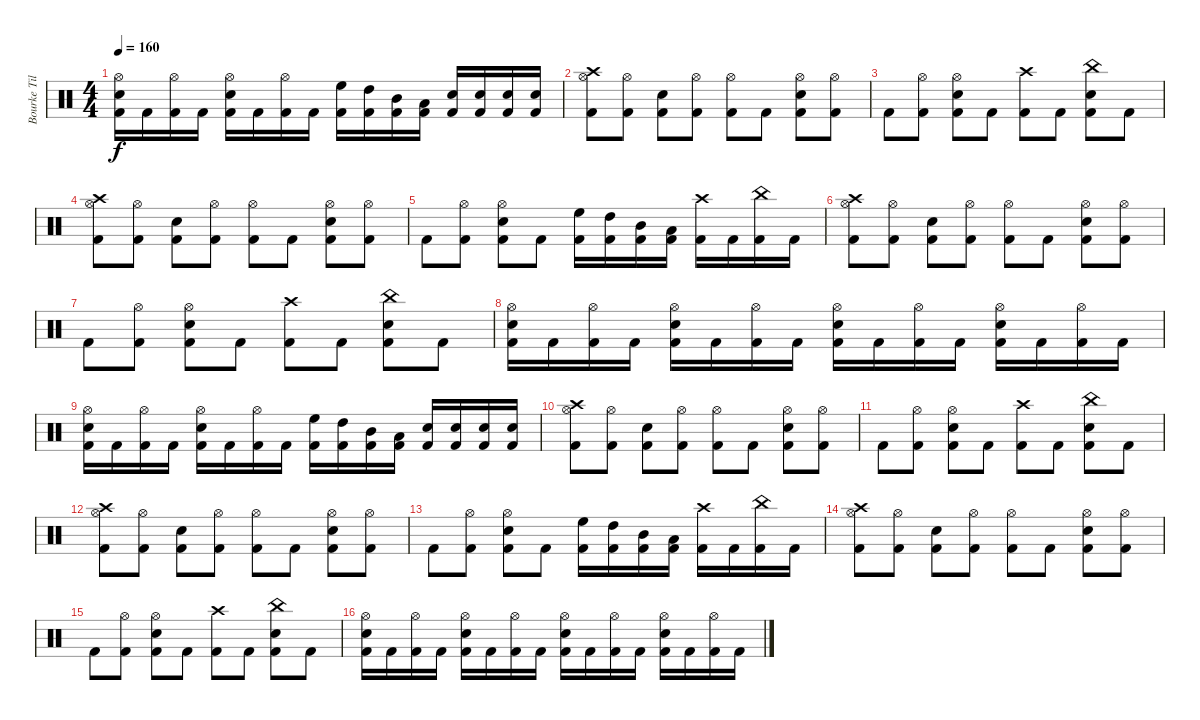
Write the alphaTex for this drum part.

\track ("Bourke Tillman" "Bourke Til") {instrument percussion}
\staff {score}
\articulation defaults
\ts (4 4)
\tempo 160
\clef neutral
\ks c
("Hi-Hat (open)" "Electric Snare (hit)" "Kick (hit) 2").16{dy f} "Kick (hit) 2".16 ("Hi-Hat (open)" "Kick (hit) 2").16 "Kick (hit) 2".16 ("Hi-Hat (open)" "Electric Snare (hit)" "Kick (hit) 2").16 "Kick (hit) 2".16 ("Hi-Hat (open)" "Kick (hit) 2").16 "Kick (hit) 2".16 ("High Floor Tom (hit)" "Kick (hit) 2").16 ("High Tom (hit)" "Kick (hit) 2").16 ("Mid Tom (hit)" "Kick (hit) 2").16 ("Low Tom (hit)" "Kick (hit) 2").16 ("Electric Snare (hit)" "Kick (hit) 2").16 ("Electric Snare (hit)" "Kick (hit) 2").16 ("Electric Snare (hit)" "Kick (hit) 2").16 ("Electric Snare (hit)" "Kick (hit) 2").16 |
("Crash high (hit)" "Hi-Hat (open)" "Kick (hit) 2").8 ("Hi-Hat (open)" "Kick (hit) 2").8 ("Electric Snare (hit)" "Kick (hit) 2").8 ("Hi-Hat (open)" "Kick (hit) 2").8 ("Hi-Hat (open)" "Kick (hit) 2").8 "Kick (hit) 2".8 ("Hi-Hat (open)" "Electric Snare (hit)" "Kick (hit) 2").8 ("Hi-Hat (open)" "Kick (hit) 2").8 |
"Kick (hit) 2".8 ("Hi-Hat (open)" "Kick (hit) 2").8 ("Hi-Hat (open)" "Electric Snare (hit)" "Kick (hit) 2").8 "Kick (hit) 2".8 ("Crash high (hit)" "Kick (hit) 2").8 "Kick (hit) 2".8 ("China (hit)" "Electric Snare (hit)" "Kick (hit) 2").8 "Kick (hit) 2".8 |
("Crash high (hit)" "Hi-Hat (open)" "Kick (hit) 2").8 ("Hi-Hat (open)" "Kick (hit) 2").8 ("Electric Snare (hit)" "Kick (hit) 2").8 ("Hi-Hat (open)" "Kick (hit) 2").8 ("Hi-Hat (open)" "Kick (hit) 2").8 "Kick (hit) 2".8 ("Hi-Hat (open)" "Electric Snare (hit)" "Kick (hit) 2").8 ("Hi-Hat (open)" "Kick (hit) 2").8 |
"Kick (hit) 2".8 ("Hi-Hat (open)" "Kick (hit) 2").8 ("Hi-Hat (open)" "Electric Snare (hit)" "Kick (hit) 2").8 "Kick (hit) 2".8 ("High Floor Tom (hit)" "Kick (hit) 2").16 ("High Tom (hit)" "Kick (hit) 2").16 ("Mid Tom (hit)" "Kick (hit) 2").16 ("Low Tom (hit)" "Kick (hit) 2").16 ("Crash high (hit)" "Kick (hit) 2").16 "Kick (hit) 2".16 ("China (hit)" "Kick (hit) 2").16 "Kick (hit) 2".16 |
("Crash high (hit)" "Hi-Hat (open)" "Kick (hit) 2").8 ("Hi-Hat (open)" "Kick (hit) 2").8 ("Electric Snare (hit)" "Kick (hit) 2").8 ("Hi-Hat (open)" "Kick (hit) 2").8 ("Hi-Hat (open)" "Kick (hit) 2").8 "Kick (hit) 2".8 ("Hi-Hat (open)" "Electric Snare (hit)" "Kick (hit) 2").8 ("Hi-Hat (open)" "Kick (hit) 2").8 |
"Kick (hit) 2".8 ("Hi-Hat (open)" "Kick (hit) 2").8 ("Hi-Hat (open)" "Electric Snare (hit)" "Kick (hit) 2").8 "Kick (hit) 2".8 ("Crash high (hit)" "Kick (hit) 2").8 "Kick (hit) 2".8 ("China (hit)" "Electric Snare (hit)" "Kick (hit) 2").8 "Kick (hit) 2".8 |
("Hi-Hat (open)" "Electric Snare (hit)" "Kick (hit) 2").16 "Kick (hit) 2".16 ("Hi-Hat (open)" "Kick (hit) 2").16 "Kick (hit) 2".16 ("Hi-Hat (open)" "Electric Snare (hit)" "Kick (hit) 2").16 "Kick (hit) 2".16 ("Hi-Hat (open)" "Kick (hit) 2").16 "Kick (hit) 2".16 ("Hi-Hat (open)" "Electric Snare (hit)" "Kick (hit) 2").16 "Kick (hit) 2".16 ("Hi-Hat (open)" "Kick (hit) 2").16 "Kick (hit) 2".16 ("Hi-Hat (open)" "Electric Snare (hit)" "Kick (hit) 2").16 "Kick (hit) 2".16 ("Hi-Hat (open)" "Kick (hit) 2").16 "Kick (hit) 2".16 |
("Hi-Hat (open)" "Electric Snare (hit)" "Kick (hit) 2").16 "Kick (hit) 2".16 ("Hi-Hat (open)" "Kick (hit) 2").16 "Kick (hit) 2".16 ("Hi-Hat (open)" "Electric Snare (hit)" "Kick (hit) 2").16 "Kick (hit) 2".16 ("Hi-Hat (open)" "Kick (hit) 2").16 "Kick (hit) 2".16 ("High Floor Tom (hit)" "Kick (hit) 2").16 ("High Tom (hit)" "Kick (hit) 2").16 ("Mid Tom (hit)" "Kick (hit) 2").16 ("Low Tom (hit)" "Kick (hit) 2").16 ("Electric Snare (hit)" "Kick (hit) 2").16 ("Electric Snare (hit)" "Kick (hit) 2").16 ("Electric Snare (hit)" "Kick (hit) 2").16 ("Electric Snare (hit)" "Kick (hit) 2").16 |
("Crash high (hit)" "Hi-Hat (open)" "Kick (hit) 2").8 ("Hi-Hat (open)" "Kick (hit) 2").8 ("Electric Snare (hit)" "Kick (hit) 2").8 ("Hi-Hat (open)" "Kick (hit) 2").8 ("Hi-Hat (open)" "Kick (hit) 2").8 "Kick (hit) 2".8 ("Hi-Hat (open)" "Electric Snare (hit)" "Kick (hit) 2").8 ("Hi-Hat (open)" "Kick (hit) 2").8 |
"Kick (hit) 2".8 ("Hi-Hat (open)" "Kick (hit) 2").8 ("Hi-Hat (open)" "Electric Snare (hit)" "Kick (hit) 2").8 "Kick (hit) 2".8 ("Crash high (hit)" "Kick (hit) 2").8 "Kick (hit) 2".8 ("China (hit)" "Electric Snare (hit)" "Kick (hit) 2").8 "Kick (hit) 2".8 |
("Crash high (hit)" "Hi-Hat (open)" "Kick (hit) 2").8 ("Hi-Hat (open)" "Kick (hit) 2").8 ("Electric Snare (hit)" "Kick (hit) 2").8 ("Hi-Hat (open)" "Kick (hit) 2").8 ("Hi-Hat (open)" "Kick (hit) 2").8 "Kick (hit) 2".8 ("Hi-Hat (open)" "Electric Snare (hit)" "Kick (hit) 2").8 ("Hi-Hat (open)" "Kick (hit) 2").8 |
"Kick (hit) 2".8 ("Hi-Hat (open)" "Kick (hit) 2").8 ("Hi-Hat (open)" "Electric Snare (hit)" "Kick (hit) 2").8 "Kick (hit) 2".8 ("High Floor Tom (hit)" "Kick (hit) 2").16 ("High Tom (hit)" "Kick (hit) 2").16 ("Mid Tom (hit)" "Kick (hit) 2").16 ("Low Tom (hit)" "Kick (hit) 2").16 ("Crash high (hit)" "Kick (hit) 2").16 "Kick (hit) 2".16 ("China (hit)" "Kick (hit) 2").16 "Kick (hit) 2".16 |
("Crash high (hit)" "Hi-Hat (open)" "Kick (hit) 2").8 ("Hi-Hat (open)" "Kick (hit) 2").8 ("Electric Snare (hit)" "Kick (hit) 2").8 ("Hi-Hat (open)" "Kick (hit) 2").8 ("Hi-Hat (open)" "Kick (hit) 2").8 "Kick (hit) 2".8 ("Hi-Hat (open)" "Electric Snare (hit)" "Kick (hit) 2").8 ("Hi-Hat (open)" "Kick (hit) 2").8 |
"Kick (hit) 2".8 ("Hi-Hat (open)" "Kick (hit) 2").8 ("Hi-Hat (open)" "Electric Snare (hit)" "Kick (hit) 2").8 "Kick (hit) 2".8 ("Crash high (hit)" "Kick (hit) 2").8 "Kick (hit) 2".8 ("China (hit)" "Electric Snare (hit)" "Kick (hit) 2").8 "Kick (hit) 2".8 |
("Hi-Hat (open)" "Electric Snare (hit)" "Kick (hit) 2").16 "Kick (hit) 2".16 ("Hi-Hat (open)" "Kick (hit) 2").16 "Kick (hit) 2".16 ("Hi-Hat (open)" "Electric Snare (hit)" "Kick (hit) 2").16 "Kick (hit) 2".16 ("Hi-Hat (open)" "Kick (hit) 2").16 "Kick (hit) 2".16 ("Hi-Hat (open)" "Electric Snare (hit)" "Kick (hit) 2").16 "Kick (hit) 2".16 ("Hi-Hat (open)" "Kick (hit) 2").16 "Kick (hit) 2".16 ("Hi-Hat (open)" "Electric Snare (hit)" "Kick (hit) 2").16 "Kick (hit) 2".16 ("Hi-Hat (open)" "Kick (hit) 2").16 "Kick (hit) 2".16
